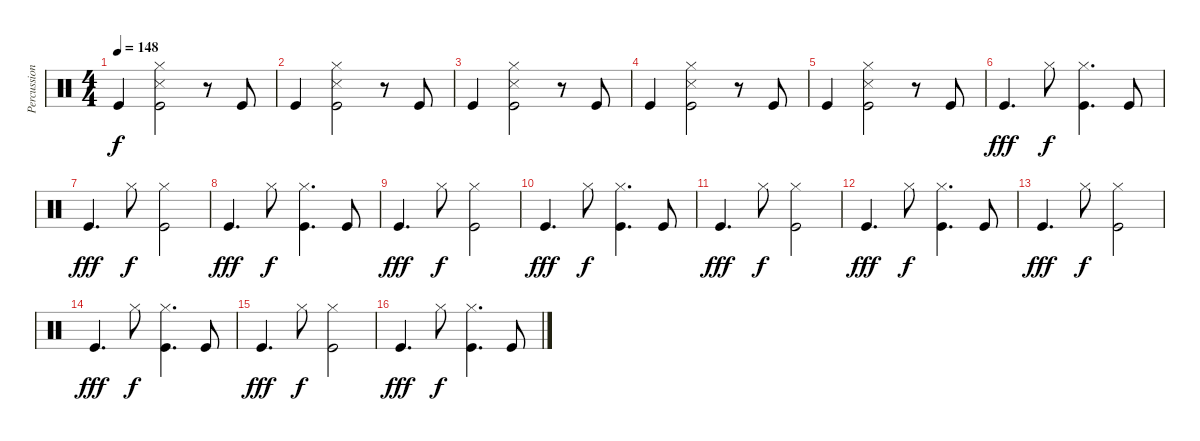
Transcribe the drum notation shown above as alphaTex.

\track ("Percussion" "Percussion") {instrument percussion}
\staff {score}
\articulation defaults
\ts (4 4)
\tempo 148
\clef neutral
\ks c "Kick (hit)".4{dy f}
("Snare (side stick) 3" "Hi-Hat (closed)" "Kick (hit)").2 r.8 "Kick (hit)".8 |
"Kick (hit)".4 ("Snare (side stick) 3" "Hi-Hat (closed)" "Kick (hit)").2 r.8 "Kick (hit)".8 |
"Kick (hit)".4 ("Snare (side stick) 3" "Hi-Hat (closed)" "Kick (hit)").2 r.8 "Kick (hit)".8 |
"Kick (hit)".4 ("Snare (side stick) 3" "Hi-Hat (closed)" "Kick (hit)").2 r.8 "Kick (hit)".8 |
"Kick (hit)".4 ("Snare (side stick) 3" "Hi-Hat (closed)" "Kick (hit)").2 r.8 "Kick (hit)".8 |
"Kick (hit)".4{d dy fff} "Hi-Hat (closed)".8{dy f} ("Hi-Hat (closed)" "Kick (hit)").4{d} "Kick (hit)".8 |
"Kick (hit)".4{d dy fff} "Hi-Hat (closed)".8{dy f} ("Kick (hit)" "Hi-Hat (closed)").2 |
"Kick (hit)".4{d dy fff} "Hi-Hat (closed)".8{dy f} ("Hi-Hat (closed)" "Kick (hit)").4{d} "Kick (hit)".8 |
"Kick (hit)".4{d dy fff} "Hi-Hat (closed)".8{dy f} ("Kick (hit)" "Hi-Hat (closed)").2 |
"Kick (hit)".4{d dy fff} "Hi-Hat (closed)".8{dy f} ("Hi-Hat (closed)" "Kick (hit)").4{d} "Kick (hit)".8 |
"Kick (hit)".4{d dy fff} "Hi-Hat (closed)".8{dy f} ("Kick (hit)" "Hi-Hat (closed)").2 |
"Kick (hit)".4{d dy fff} "Hi-Hat (closed)".8{dy f} ("Hi-Hat (closed)" "Kick (hit)").4{d} "Kick (hit)".8 |
"Kick (hit)".4{d dy fff} "Hi-Hat (closed)".8{dy f} ("Kick (hit)" "Hi-Hat (closed)").2 |
"Kick (hit)".4{d dy fff} "Hi-Hat (closed)".8{dy f} ("Hi-Hat (closed)" "Kick (hit)").4{d} "Kick (hit)".8 |
"Kick (hit)".4{d dy fff} "Hi-Hat (closed)".8{dy f} ("Kick (hit)" "Hi-Hat (closed)").2 |
"Kick (hit)".4{d dy fff} "Hi-Hat (closed)".8{dy f} ("Hi-Hat (closed)" "Kick (hit)").4{d} "Kick (hit)".8
